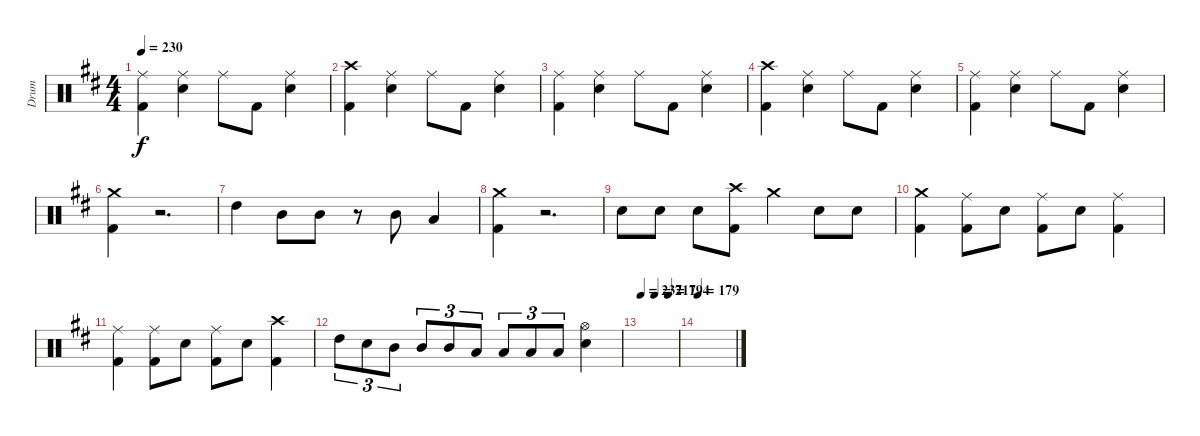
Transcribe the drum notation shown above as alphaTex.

\track ("Drum" "Drum") {instrument percussion}
\staff {score}
\articulation defaults
\ts (4 4)
\tempo 230
\clef neutral
\ks d
("Ride (middle)" "Kick (hit) 2").4{dy f} ("Ride (middle)" "Snare (hit) 2").4 "Ride (middle)".8 "Kick (hit) 2".8 ("Ride (middle)" "Snare (hit) 2").4 |
("Crash high (hit)" "Kick (hit) 2").4 ("Ride (middle)" "Snare (hit) 2").4 "Ride (middle)".8 "Kick (hit) 2".8 ("Ride (middle)" "Snare (hit) 2").4 |
("Ride (middle)" "Kick (hit) 2").4 ("Ride (middle)" "Snare (hit) 2").4 "Ride (middle)".8 "Kick (hit) 2".8 ("Ride (middle)" "Snare (hit) 2").4 |
("Crash high (hit)" "Kick (hit) 2").4 ("Ride (middle)" "Snare (hit) 2").4 "Ride (middle)".8 "Kick (hit) 2".8 ("Ride (middle)" "Snare (hit) 2").4 |
("Ride (middle)" "Kick (hit) 2").4 ("Ride (middle)" "Snare (hit) 2").4 "Ride (middle)".8 "Kick (hit) 2".8 ("Ride (middle)" "Snare (hit) 2").4 |
("Crash medium (hit)" "Kick (hit) 2").4 r.2{d} |
"High Tom (hit)".4 "Mid Tom (hit)".8 "Mid Tom (hit)".8 r.8 "Mid Tom (hit)".8 "Low Tom (hit)".4 |
("Crash medium (hit)" "Kick (hit) 2").4 r.2{d} |
"Snare (hit) 2".8 "Snare (hit) 2".8 "Snare (hit) 2".8 ("Crash high (hit)" "Kick (hit) 2").8 "Crash medium (hit)".4 "Snare (hit) 2".8 "Snare (hit) 2".8 |
("Crash medium (hit)" "Kick (hit) 2").4 ("Ride (middle)" "Kick (hit) 2").8 "Snare (hit) 2".8 ("Ride (middle)" "Kick (hit) 2").8 "Snare (hit) 2".8 ("Ride (middle)" "Kick (hit) 2").4 |
("Ride (middle)" "Kick (hit) 2").4 ("Ride (middle)" "Kick (hit) 2").8 "Snare (hit) 2".8 ("Ride (middle)" "Kick (hit) 2").8 "Snare (hit) 2".8 ("Crash high (hit)" "Kick (hit) 2").4 |
"High Tom (hit)".8{tu (3 2)} "Snare (hit) 2".8{tu (3 2)} "Mid Tom (hit)".8{tu (3 2)} "Mid Tom (hit)".8{tu (3 2)} "Mid Tom (hit)".8{tu (3 2)} "Low Tom (hit)".8{tu (3 2)} "Low Tom (hit)".8{tu (3 2)} "Low Tom (hit)".8{tu (3 2)} "Low Tom (hit)".8{tu (3 2)} ("Hi-Hat (open)" "Snare (hit) 2").4 |
\tempo 237
\tempo (217 0.375)
\tempo (194 0.75)
|
\tempo 179
